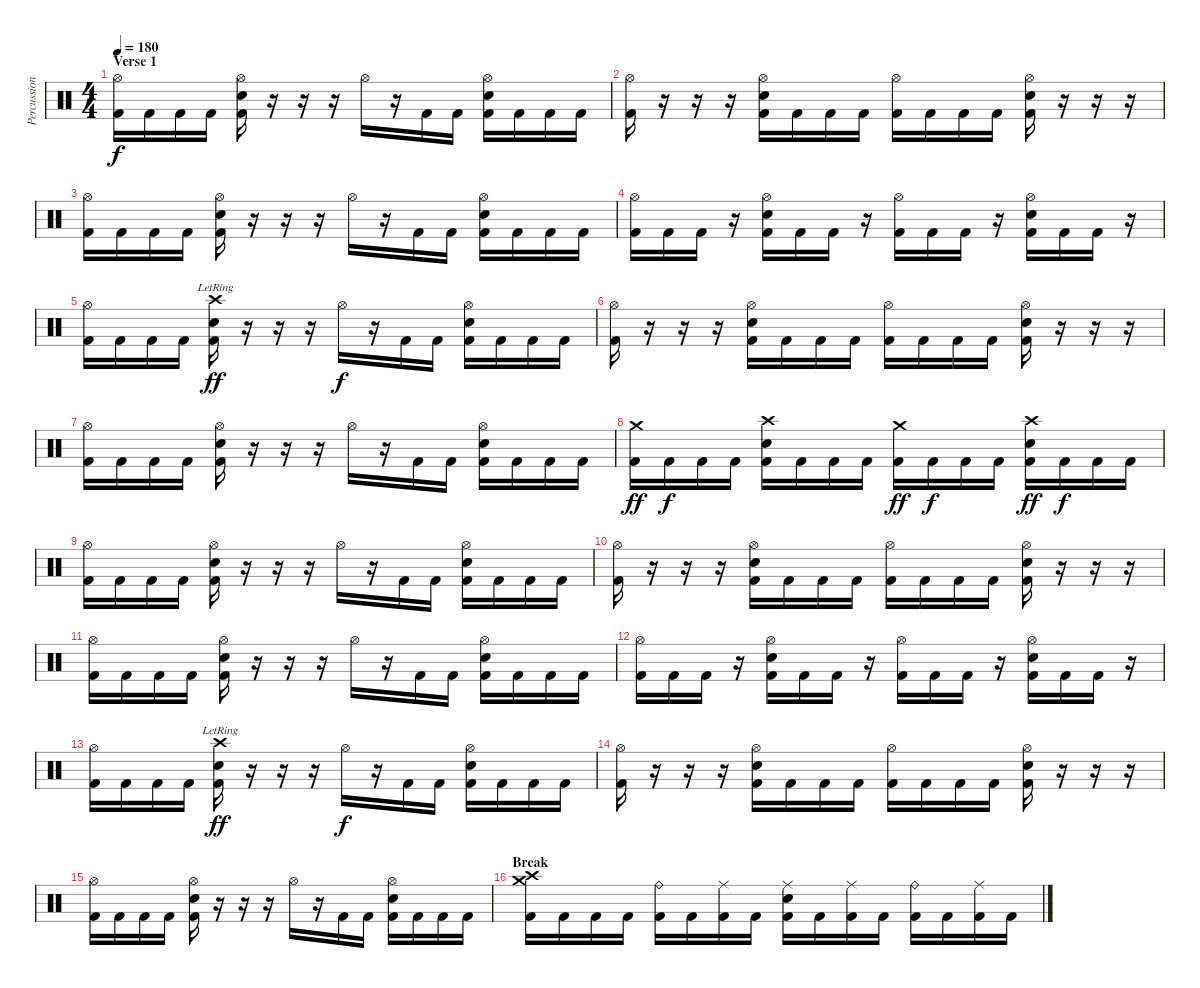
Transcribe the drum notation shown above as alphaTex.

\track ("Percussions" "Percussion") {instrument percussion}
\staff {score}
\articulation defaults
\ts (4 4)
\section ("" "Verse 1")
\tempo 180
\clef neutral
\ks c
("Hi-Hat (open)" "Kick (hit) 2").16{dy f} "Kick (hit) 2".16 "Kick (hit) 2".16 "Kick (hit) 2".16 ("Hi-Hat (open)" "Electric Snare (hit)" "Kick (hit) 2").16 r.16 r.16 r.16 "Hi-Hat (open)".16 r.16 "Kick (hit) 2".16 "Kick (hit) 2".16 ("Hi-Hat (open)" "Electric Snare (hit)" "Kick (hit) 2").16 "Kick (hit) 2".16 "Kick (hit) 2".16 "Kick (hit) 2".16 |
("Hi-Hat (open)" "Kick (hit) 2").16 r.16 r.16 r.16 ("Hi-Hat (open)" "Electric Snare (hit)" "Kick (hit) 2").16 "Kick (hit) 2".16 "Kick (hit) 2".16 "Kick (hit) 2".16 ("Hi-Hat (open)" "Kick (hit) 2").16 "Kick (hit) 2".16 "Kick (hit) 2".16 "Kick (hit) 2".16 ("Hi-Hat (open)" "Electric Snare (hit)" "Kick (hit) 2").16 r.16 r.16 r.16 |
("Hi-Hat (open)" "Kick (hit) 2").16 "Kick (hit) 2".16 "Kick (hit) 2".16 "Kick (hit) 2".16 ("Hi-Hat (open)" "Electric Snare (hit)" "Kick (hit) 2").16 r.16 r.16 r.16 "Hi-Hat (open)".16 r.16 "Kick (hit) 2".16 "Kick (hit) 2".16 ("Hi-Hat (open)" "Electric Snare (hit)" "Kick (hit) 2").16 "Kick (hit) 2".16 "Kick (hit) 2".16 "Kick (hit) 2".16 |
("Hi-Hat (open)" "Kick (hit) 2").16 "Kick (hit) 2".16 "Kick (hit) 2".16 r.16 ("Hi-Hat (open)" "Electric Snare (hit)" "Kick (hit) 2").16 "Kick (hit) 2".16 "Kick (hit) 2".16 r.16 ("Hi-Hat (open)" "Kick (hit) 2").16 "Kick (hit) 2".16 "Kick (hit) 2".16 r.16 ("Hi-Hat (open)" "Electric Snare (hit)" "Kick (hit) 2").16 "Kick (hit) 2".16 "Kick (hit) 2".16 r.16 |
("Hi-Hat (open)" "Kick (hit) 2").16 "Kick (hit) 2".16 "Kick (hit) 2".16 "Kick (hit) 2".16 ("Crash high (hit)"{lr} "Electric Snare (hit)" "Kick (hit) 2").16{dy ff} r.16 r.16 r.16 "Hi-Hat (open)".16{dy f} r.16 "Kick (hit) 2".16 "Kick (hit) 2".16 ("Hi-Hat (open)" "Electric Snare (hit)" "Kick (hit) 2").16 "Kick (hit) 2".16 "Kick (hit) 2".16 "Kick (hit) 2".16 |
("Hi-Hat (open)" "Kick (hit) 2").16 r.16 r.16 r.16 ("Hi-Hat (open)" "Electric Snare (hit)" "Kick (hit) 2").16 "Kick (hit) 2".16 "Kick (hit) 2".16 "Kick (hit) 2".16 ("Hi-Hat (open)" "Kick (hit) 2").16 "Kick (hit) 2".16 "Kick (hit) 2".16 "Kick (hit) 2".16 ("Hi-Hat (open)" "Electric Snare (hit)" "Kick (hit) 2").16 r.16 r.16 r.16 |
("Hi-Hat (open)" "Kick (hit) 2").16 "Kick (hit) 2".16 "Kick (hit) 2".16 "Kick (hit) 2".16 ("Hi-Hat (open)" "Electric Snare (hit)" "Kick (hit) 2").16 r.16 r.16 r.16 "Hi-Hat (open)".16 r.16 "Kick (hit) 2".16 "Kick (hit) 2".16 ("Hi-Hat (open)" "Electric Snare (hit)" "Kick (hit) 2").16 "Kick (hit) 2".16 "Kick (hit) 2".16 "Kick (hit) 2".16 |
("Crash medium (hit)" "Kick (hit) 2").16{dy ff} "Kick (hit) 2".16{dy f} "Kick (hit) 2".16 "Kick (hit) 2".16 ("Crash high (hit)" "Electric Snare (hit)" "Kick (hit) 2").16 "Kick (hit) 2".16 "Kick (hit) 2".16 "Kick (hit) 2".16 ("Crash medium (hit)" "Kick (hit) 2").16{dy ff} "Kick (hit) 2".16{dy f} "Kick (hit) 2".16 "Kick (hit) 2".16 ("Crash high (hit)" "Electric Snare (hit)" "Kick (hit) 2").16{dy ff} "Kick (hit) 2".16{dy f} "Kick (hit) 2".16 "Kick (hit) 2".16 |
("Hi-Hat (open)" "Kick (hit) 2").16 "Kick (hit) 2".16 "Kick (hit) 2".16 "Kick (hit) 2".16 ("Hi-Hat (open)" "Electric Snare (hit)" "Kick (hit) 2").16 r.16 r.16 r.16 "Hi-Hat (open)".16 r.16 "Kick (hit) 2".16 "Kick (hit) 2".16 ("Hi-Hat (open)" "Electric Snare (hit)" "Kick (hit) 2").16 "Kick (hit) 2".16 "Kick (hit) 2".16 "Kick (hit) 2".16 |
("Hi-Hat (open)" "Kick (hit) 2").16 r.16 r.16 r.16 ("Hi-Hat (open)" "Electric Snare (hit)" "Kick (hit) 2").16 "Kick (hit) 2".16 "Kick (hit) 2".16 "Kick (hit) 2".16 ("Hi-Hat (open)" "Kick (hit) 2").16 "Kick (hit) 2".16 "Kick (hit) 2".16 "Kick (hit) 2".16 ("Hi-Hat (open)" "Electric Snare (hit)" "Kick (hit) 2").16 r.16 r.16 r.16 |
("Hi-Hat (open)" "Kick (hit) 2").16 "Kick (hit) 2".16 "Kick (hit) 2".16 "Kick (hit) 2".16 ("Hi-Hat (open)" "Electric Snare (hit)" "Kick (hit) 2").16 r.16 r.16 r.16 "Hi-Hat (open)".16 r.16 "Kick (hit) 2".16 "Kick (hit) 2".16 ("Hi-Hat (open)" "Electric Snare (hit)" "Kick (hit) 2").16 "Kick (hit) 2".16 "Kick (hit) 2".16 "Kick (hit) 2".16 |
("Hi-Hat (open)" "Kick (hit) 2").16 "Kick (hit) 2".16 "Kick (hit) 2".16 r.16 ("Hi-Hat (open)" "Electric Snare (hit)" "Kick (hit) 2").16 "Kick (hit) 2".16 "Kick (hit) 2".16 r.16 ("Hi-Hat (open)" "Kick (hit) 2").16 "Kick (hit) 2".16 "Kick (hit) 2".16 r.16 ("Hi-Hat (open)" "Electric Snare (hit)" "Kick (hit) 2").16 "Kick (hit) 2".16 "Kick (hit) 2".16 r.16 |
("Hi-Hat (open)" "Kick (hit) 2").16 "Kick (hit) 2".16 "Kick (hit) 2".16 "Kick (hit) 2".16 ("Crash high (hit)"{lr} "Electric Snare (hit)" "Kick (hit) 2").16{dy ff} r.16 r.16 r.16 "Hi-Hat (open)".16{dy f} r.16 "Kick (hit) 2".16 "Kick (hit) 2".16 ("Hi-Hat (open)" "Electric Snare (hit)" "Kick (hit) 2").16 "Kick (hit) 2".16 "Kick (hit) 2".16 "Kick (hit) 2".16 |
("Hi-Hat (open)" "Kick (hit) 2").16 r.16 r.16 r.16 ("Hi-Hat (open)" "Electric Snare (hit)" "Kick (hit) 2").16 "Kick (hit) 2".16 "Kick (hit) 2".16 "Kick (hit) 2".16 ("Hi-Hat (open)" "Kick (hit) 2").16 "Kick (hit) 2".16 "Kick (hit) 2".16 "Kick (hit) 2".16 ("Hi-Hat (open)" "Electric Snare (hit)" "Kick (hit) 2").16 r.16 r.16 r.16 |
("Hi-Hat (open)" "Kick (hit) 2").16 "Kick (hit) 2".16 "Kick (hit) 2".16 "Kick (hit) 2".16 ("Hi-Hat (open)" "Electric Snare (hit)" "Kick (hit) 2").16 r.16 r.16 r.16 "Hi-Hat (open)".16 r.16 "Kick (hit) 2".16 "Kick (hit) 2".16 ("Hi-Hat (open)" "Electric Snare (hit)" "Kick (hit) 2").16 "Kick (hit) 2".16 "Kick (hit) 2".16 "Kick (hit) 2".16 |
\section ("" "Break")
("Crash medium (hit)" "Crash high (hit)" "Kick (hit) 2").16 "Kick (hit) 2".16 "Kick (hit) 2".16 "Kick (hit) 2".16 ("Ride (bell)" "Kick (hit) 2").16 "Kick (hit) 2".16 ("Ride (middle)" "Kick (hit) 2").16 "Kick (hit) 2".16 ("Ride (middle)" "Electric Snare (hit)" "Kick (hit) 2").16 "Kick (hit) 2".16 ("Ride (middle)" "Kick (hit) 2").16 "Kick (hit) 2".16 ("Ride (bell)" "Kick (hit) 2").16 "Kick (hit) 2".16 ("Ride (middle)" "Kick (hit) 2").16 "Kick (hit) 2".16
